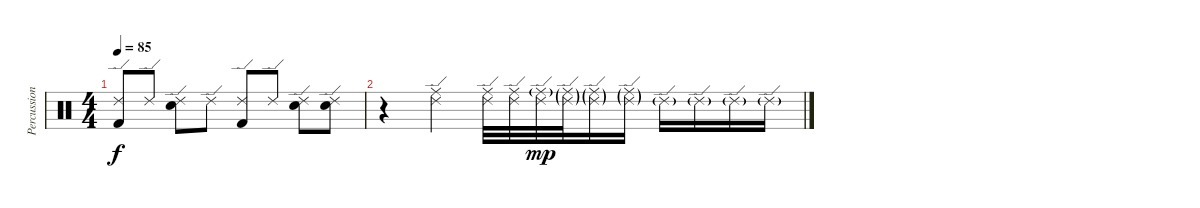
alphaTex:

\track ("Percussion" "Percussion") {instrument percussion}
\staff {score}
\articulation defaults
\ts (4 4)
\tempo 85
\clef neutral
\ks c
("Ride (edge) 2" "Kick (hit) 2").8{dy f} "Ride (edge) 2".8 ("Ride (edge) 2" "Snare (hit) 2").8 "Ride (edge) 2".8 ("Ride (edge) 2" "Kick (hit) 2").8 "Ride (edge) 2".8 ("Ride (edge) 2" "Snare (hit) 2").8 ("Ride (edge) 2" "Snare (hit) 2").8 |
r.4 ("Ride (edge) 2" "Ride (middle)").4 ("Ride (edge) 2" "Ride (middle)").32 ("Ride (edge) 2" "Ride (middle)").32 ("Ride (edge) 2" "Ride (middle)"{g}).32{dy mp} ("Ride (edge) 2"{g} "Ride (middle)"{g}).32 ("Ride (edge) 2"{g} "Ride (middle)"{g}).16 ("Ride (edge) 2"{g} "Ride (middle)"{g}).16 "Ride (edge) 2"{g}.16 "Ride (edge) 2"{g}.16 "Ride (edge) 2"{g}.16 "Ride (edge) 2"{g}.16
